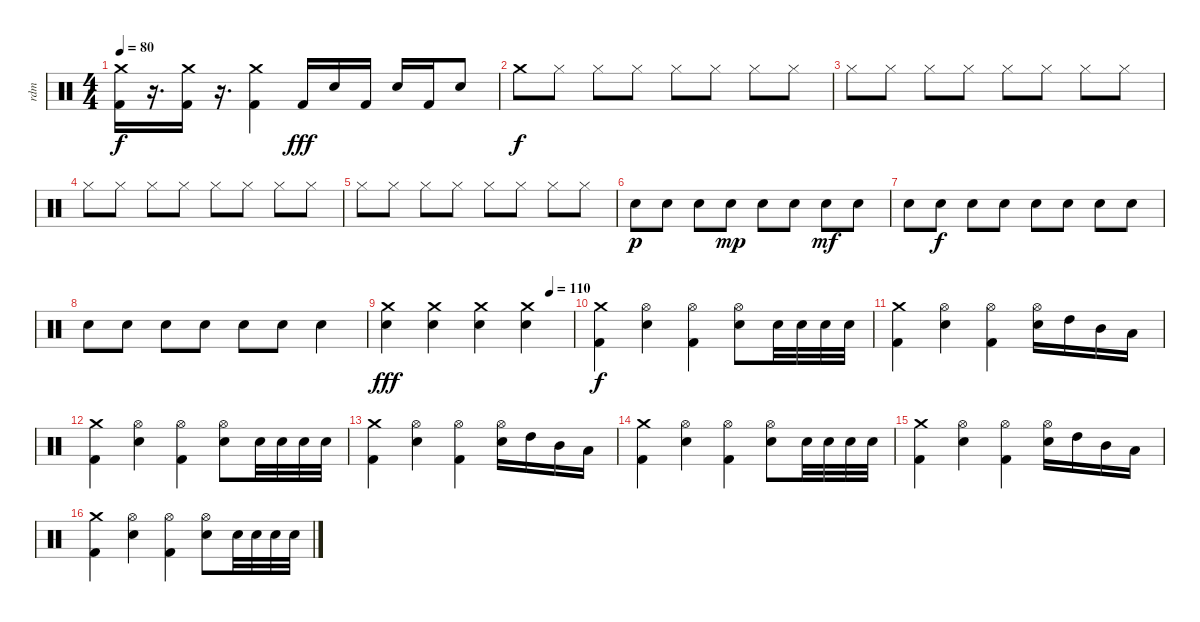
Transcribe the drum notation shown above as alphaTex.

\track ("rdm" "rdm") {instrument percussion}
\staff {score}
\articulation defaults
\ts (4 4)
\tempo 80
\clef neutral
\ks c
("Crash medium (hit)" "Kick (hit) 2").16{dy f} r.16{d} ("Crash medium (hit)" "Kick (hit) 2").16 r.16{d} ("Crash medium (hit)" "Kick (hit) 2").4 "Kick (hit) 2".16{dy fff} "Snare (hit) 2".16 "Kick (hit) 2".16 "Snare (hit) 2".16 "Kick (hit) 2".16 "Snare (hit) 2".8 |
"Crash medium (hit)".8{dy f} "Hi-Hat (closed)".8 "Hi-Hat (closed)".8 "Hi-Hat (closed)".8 "Hi-Hat (closed)".8 "Hi-Hat (closed)".8 "Hi-Hat (closed)".8 "Hi-Hat (closed)".8 |
"Hi-Hat (closed)".8 "Hi-Hat (closed)".8 "Hi-Hat (closed)".8 "Hi-Hat (closed)".8 "Hi-Hat (closed)".8 "Hi-Hat (closed)".8 "Hi-Hat (closed)".8 "Hi-Hat (closed)".8 |
"Hi-Hat (closed)".8 "Hi-Hat (closed)".8 "Hi-Hat (closed)".8 "Hi-Hat (closed)".8 "Hi-Hat (closed)".8 "Hi-Hat (closed)".8 "Hi-Hat (closed)".8 "Hi-Hat (closed)".8 |
"Hi-Hat (closed)".8 "Hi-Hat (closed)".8 "Hi-Hat (closed)".8 "Hi-Hat (closed)".8 "Hi-Hat (closed)".8 "Hi-Hat (closed)".8 "Hi-Hat (closed)".8 "Hi-Hat (closed)".8 |
"Snare (hit) 2".8{dy p} "Snare (hit) 2".8 "Snare (hit) 2".8 "Snare (hit) 2".8{dy mp} "Snare (hit) 2".8 "Snare (hit) 2".8 "Snare (hit) 2".8{dy mf} "Snare (hit) 2".8 |
"Snare (hit) 2".8 "Snare (hit) 2".8{dy f} "Snare (hit) 2".8 "Snare (hit) 2".8 "Snare (hit) 2".8 "Snare (hit) 2".8 "Snare (hit) 2".8 "Snare (hit) 2".8 |
"Snare (hit) 2".8 "Snare (hit) 2".8 "Snare (hit) 2".8 "Snare (hit) 2".8 "Snare (hit) 2".8 "Snare (hit) 2".8 "Snare (hit) 2".4 |
\tempo (110 0.875)
("Crash medium (hit)" "Snare (hit) 2").4{dy fff} ("Crash medium (hit)" "Snare (hit) 2").4 ("Crash medium (hit)" "Snare (hit) 2").4 ("Crash medium (hit)" "Snare (hit) 2").4 |
("Crash medium (hit)" "Kick (hit) 2").4{dy f} ("Hi-Hat (open)" "Snare (hit) 2").4 ("Hi-Hat (open)" "Kick (hit) 2").4 ("Hi-Hat (open)" "Snare (hit) 2").8 "Snare (hit) 2".32 "Snare (hit) 2".32 "Snare (hit) 2".32 "Snare (hit) 2".32 |
("Crash medium (hit)" "Kick (hit) 2").4 ("Hi-Hat (open)" "Snare (hit) 2").4 ("Hi-Hat (open)" "Kick (hit) 2").4 ("Hi-Hat (open)" "Snare (hit) 2").16 "High Tom (hit)".16 "Mid Tom (hit)".16 "Low Tom (hit)".16 |
("Crash medium (hit)" "Kick (hit) 2").4 ("Hi-Hat (open)" "Snare (hit) 2").4 ("Hi-Hat (open)" "Kick (hit) 2").4 ("Hi-Hat (open)" "Snare (hit) 2").8 "Snare (hit) 2".32 "Snare (hit) 2".32 "Snare (hit) 2".32 "Snare (hit) 2".32 |
("Crash medium (hit)" "Kick (hit) 2").4 ("Hi-Hat (open)" "Snare (hit) 2").4 ("Hi-Hat (open)" "Kick (hit) 2").4 ("Hi-Hat (open)" "Snare (hit) 2").16 "High Tom (hit)".16 "Mid Tom (hit)".16 "Low Tom (hit)".16 |
("Crash medium (hit)" "Kick (hit) 2").4 ("Hi-Hat (open)" "Snare (hit) 2").4 ("Hi-Hat (open)" "Kick (hit) 2").4 ("Hi-Hat (open)" "Snare (hit) 2").8 "Snare (hit) 2".32 "Snare (hit) 2".32 "Snare (hit) 2".32 "Snare (hit) 2".32 |
("Crash medium (hit)" "Kick (hit) 2").4 ("Hi-Hat (open)" "Snare (hit) 2").4 ("Hi-Hat (open)" "Kick (hit) 2").4 ("Hi-Hat (open)" "Snare (hit) 2").16 "High Tom (hit)".16 "Mid Tom (hit)".16 "Low Tom (hit)".16 |
("Crash medium (hit)" "Kick (hit) 2").4 ("Hi-Hat (open)" "Snare (hit) 2").4 ("Hi-Hat (open)" "Kick (hit) 2").4 ("Hi-Hat (open)" "Snare (hit) 2").8 "Snare (hit) 2".32 "Snare (hit) 2".32 "Snare (hit) 2".32 "Snare (hit) 2".32
